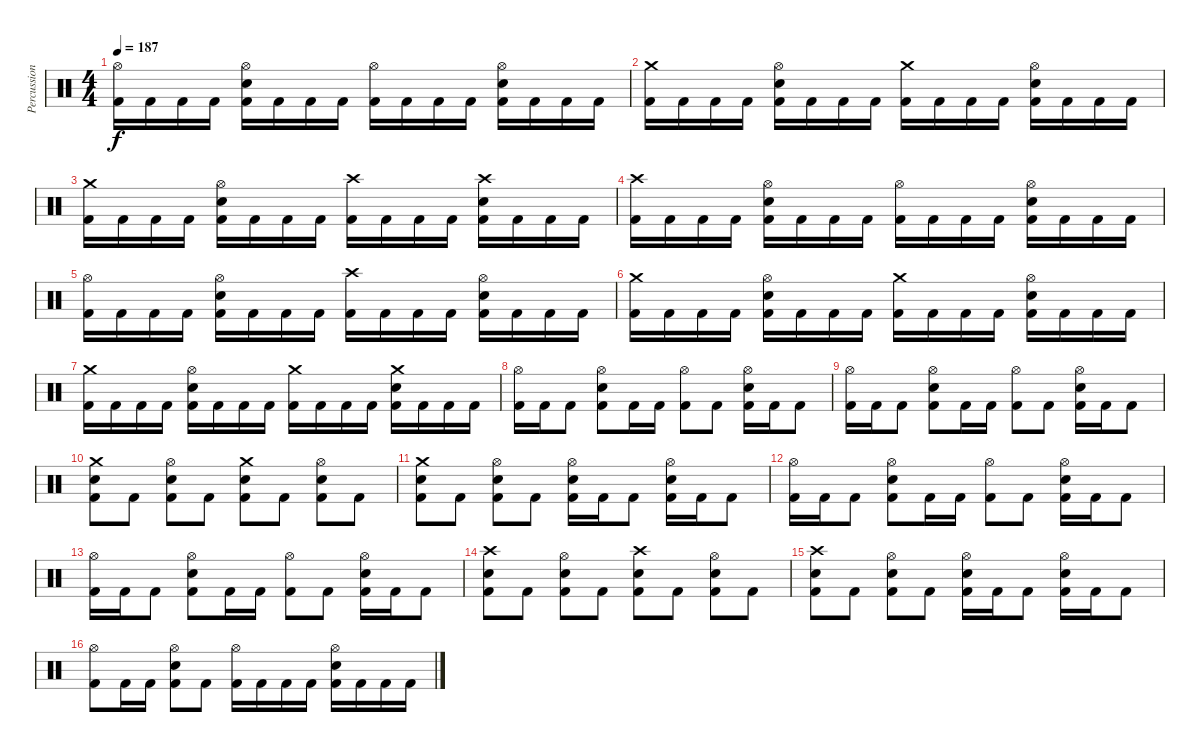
\track ("Percussion" "Percussion") {instrument percussion}
\staff {score}
\articulation defaults
\ts (4 4)
\tempo 187
\clef neutral
\ks c
("Hi-Hat (open)" "Kick (hit) 2").16{dy f} "Kick (hit) 2".16 "Kick (hit) 2".16 "Kick (hit) 2".16 ("Hi-Hat (open)" "Electric Snare (hit)" "Kick (hit) 2").16 "Kick (hit) 2".16 "Kick (hit) 2".16 "Kick (hit) 2".16 ("Hi-Hat (open)" "Kick (hit) 2").16 "Kick (hit) 2".16 "Kick (hit) 2".16 "Kick (hit) 2".16 ("Hi-Hat (open)" "Electric Snare (hit)" "Kick (hit) 2").16 "Kick (hit) 2".16 "Kick (hit) 2".16 "Kick (hit) 2".16 |
("Crash medium (hit)" "Kick (hit) 2").16 "Kick (hit) 2".16 "Kick (hit) 2".16 "Kick (hit) 2".16 ("Hi-Hat (open)" "Electric Snare (hit)" "Kick (hit) 2").16 "Kick (hit) 2".16 "Kick (hit) 2".16 "Kick (hit) 2".16 ("Crash medium (hit)" "Kick (hit) 2").16 "Kick (hit) 2".16 "Kick (hit) 2".16 "Kick (hit) 2".16 ("Hi-Hat (open)" "Electric Snare (hit)" "Kick (hit) 2").16 "Kick (hit) 2".16 "Kick (hit) 2".16 "Kick (hit) 2".16 |
("Crash medium (hit)" "Kick (hit) 2").16 "Kick (hit) 2".16 "Kick (hit) 2".16 "Kick (hit) 2".16 ("Hi-Hat (open)" "Electric Snare (hit)" "Kick (hit) 2").16 "Kick (hit) 2".16 "Kick (hit) 2".16 "Kick (hit) 2".16 ("Crash high (hit)" "Kick (hit) 2").16 "Kick (hit) 2".16 "Kick (hit) 2".16 "Kick (hit) 2".16 ("Crash high (hit)" "Electric Snare (hit)" "Kick (hit) 2").16 "Kick (hit) 2".16 "Kick (hit) 2".16 "Kick (hit) 2".16 |
("Crash high (hit)" "Kick (hit) 2").16 "Kick (hit) 2".16 "Kick (hit) 2".16 "Kick (hit) 2".16 ("Hi-Hat (open)" "Electric Snare (hit)" "Kick (hit) 2").16 "Kick (hit) 2".16 "Kick (hit) 2".16 "Kick (hit) 2".16 ("Hi-Hat (open)" "Kick (hit) 2").16 "Kick (hit) 2".16 "Kick (hit) 2".16 "Kick (hit) 2".16 ("Hi-Hat (open)" "Electric Snare (hit)" "Kick (hit) 2").16 "Kick (hit) 2".16 "Kick (hit) 2".16 "Kick (hit) 2".16 |
("Hi-Hat (open)" "Kick (hit) 2").16 "Kick (hit) 2".16 "Kick (hit) 2".16 "Kick (hit) 2".16 ("Hi-Hat (open)" "Electric Snare (hit)" "Kick (hit) 2").16 "Kick (hit) 2".16 "Kick (hit) 2".16 "Kick (hit) 2".16 ("Crash high (hit)" "Kick (hit) 2").16 "Kick (hit) 2".16 "Kick (hit) 2".16 "Kick (hit) 2".16 ("Hi-Hat (open)" "Electric Snare (hit)" "Kick (hit) 2").16 "Kick (hit) 2".16 "Kick (hit) 2".16 "Kick (hit) 2".16 |
("Crash medium (hit)" "Kick (hit) 2").16 "Kick (hit) 2".16 "Kick (hit) 2".16 "Kick (hit) 2".16 ("Hi-Hat (open)" "Electric Snare (hit)" "Kick (hit) 2").16 "Kick (hit) 2".16 "Kick (hit) 2".16 "Kick (hit) 2".16 ("Crash medium (hit)" "Kick (hit) 2").16 "Kick (hit) 2".16 "Kick (hit) 2".16 "Kick (hit) 2".16 ("Hi-Hat (open)" "Electric Snare (hit)" "Kick (hit) 2").16 "Kick (hit) 2".16 "Kick (hit) 2".16 "Kick (hit) 2".16 |
("Crash medium (hit)" "Kick (hit) 2").16 "Kick (hit) 2".16 "Kick (hit) 2".16 "Kick (hit) 2".16 ("Hi-Hat (open)" "Electric Snare (hit)" "Kick (hit) 2").16 "Kick (hit) 2".16 "Kick (hit) 2".16 "Kick (hit) 2".16 ("Crash medium (hit)" "Kick (hit) 2").16 "Kick (hit) 2".16 "Kick (hit) 2".16 "Kick (hit) 2".16 ("Crash medium (hit)" "Electric Snare (hit)" "Kick (hit) 2").16 "Kick (hit) 2".16 "Kick (hit) 2".16 "Kick (hit) 2".16 |
("Hi-Hat (open)" "Kick (hit) 2").16 "Kick (hit) 2".16 "Kick (hit) 2".8 ("Hi-Hat (open)" "Electric Snare (hit)" "Kick (hit) 2").8 "Kick (hit) 2".16 "Kick (hit) 2".16 ("Hi-Hat (open)" "Kick (hit) 2").8 "Kick (hit) 2".8 ("Hi-Hat (open)" "Electric Snare (hit)" "Kick (hit) 2").16 "Kick (hit) 2".16 "Kick (hit) 2".8 |
("Hi-Hat (open)" "Kick (hit) 2").16 "Kick (hit) 2".16 "Kick (hit) 2".8 ("Hi-Hat (open)" "Electric Snare (hit)" "Kick (hit) 2").8 "Kick (hit) 2".16 "Kick (hit) 2".16 ("Hi-Hat (open)" "Kick (hit) 2").8 "Kick (hit) 2".8 ("Hi-Hat (open)" "Electric Snare (hit)" "Kick (hit) 2").16 "Kick (hit) 2".16 "Kick (hit) 2".8 |
("Crash medium (hit)" "Electric Snare (hit)" "Kick (hit) 2").8 "Kick (hit) 2".8 ("Hi-Hat (open)" "Electric Snare (hit)" "Kick (hit) 2").8 "Kick (hit) 2".8 ("Crash medium (hit)" "Electric Snare (hit)" "Kick (hit) 2").8 "Kick (hit) 2".8 ("Hi-Hat (open)" "Electric Snare (hit)" "Kick (hit) 2").8 "Kick (hit) 2".8 |
("Crash medium (hit)" "Electric Snare (hit)" "Kick (hit) 2").8 "Kick (hit) 2".8 ("Hi-Hat (open)" "Electric Snare (hit)" "Kick (hit) 2").8 "Kick (hit) 2".8 ("Hi-Hat (open)" "Electric Snare (hit)" "Kick (hit) 2").16 "Kick (hit) 2".16 "Kick (hit) 2".8 ("Hi-Hat (open)" "Electric Snare (hit)" "Kick (hit) 2").16 "Kick (hit) 2".16 "Kick (hit) 2".8 |
("Hi-Hat (open)" "Kick (hit) 2").16 "Kick (hit) 2".16 "Kick (hit) 2".8 ("Hi-Hat (open)" "Electric Snare (hit)" "Kick (hit) 2").8 "Kick (hit) 2".16 "Kick (hit) 2".16 ("Hi-Hat (open)" "Kick (hit) 2").8 "Kick (hit) 2".8 ("Hi-Hat (open)" "Electric Snare (hit)" "Kick (hit) 2").16 "Kick (hit) 2".16 "Kick (hit) 2".8 |
("Hi-Hat (open)" "Kick (hit) 2").16 "Kick (hit) 2".16 "Kick (hit) 2".8 ("Hi-Hat (open)" "Electric Snare (hit)" "Kick (hit) 2").8 "Kick (hit) 2".16 "Kick (hit) 2".16 ("Hi-Hat (open)" "Kick (hit) 2").8 "Kick (hit) 2".8 ("Hi-Hat (open)" "Electric Snare (hit)" "Kick (hit) 2").16 "Kick (hit) 2".16 "Kick (hit) 2".8 |
("Crash high (hit)" "Electric Snare (hit)" "Kick (hit) 2").8 "Kick (hit) 2".8 ("Hi-Hat (open)" "Electric Snare (hit)" "Kick (hit) 2").8 "Kick (hit) 2".8 ("Crash high (hit)" "Electric Snare (hit)" "Kick (hit) 2").8 "Kick (hit) 2".8 ("Hi-Hat (open)" "Electric Snare (hit)" "Kick (hit) 2").8 "Kick (hit) 2".8 |
("Crash high (hit)" "Electric Snare (hit)" "Kick (hit) 2").8 "Kick (hit) 2".8 ("Hi-Hat (open)" "Electric Snare (hit)" "Kick (hit) 2").8 "Kick (hit) 2".8 ("Hi-Hat (open)" "Electric Snare (hit)" "Kick (hit) 2").16 "Kick (hit) 2".16 "Kick (hit) 2".8 ("Hi-Hat (open)" "Electric Snare (hit)" "Kick (hit) 2").16 "Kick (hit) 2".16 "Kick (hit) 2".8 |
("Hi-Hat (open)" "Kick (hit) 2").8 "Kick (hit) 2".16 "Kick (hit) 2".16 ("Hi-Hat (open)" "Electric Snare (hit)" "Kick (hit) 2").8 "Kick (hit) 2".8 ("Hi-Hat (open)" "Kick (hit) 2").16 "Kick (hit) 2".16 "Kick (hit) 2".16 "Kick (hit) 2".16 ("Hi-Hat (open)" "Electric Snare (hit)" "Kick (hit) 2").16 "Kick (hit) 2".16 "Kick (hit) 2".16 "Kick (hit) 2".16
